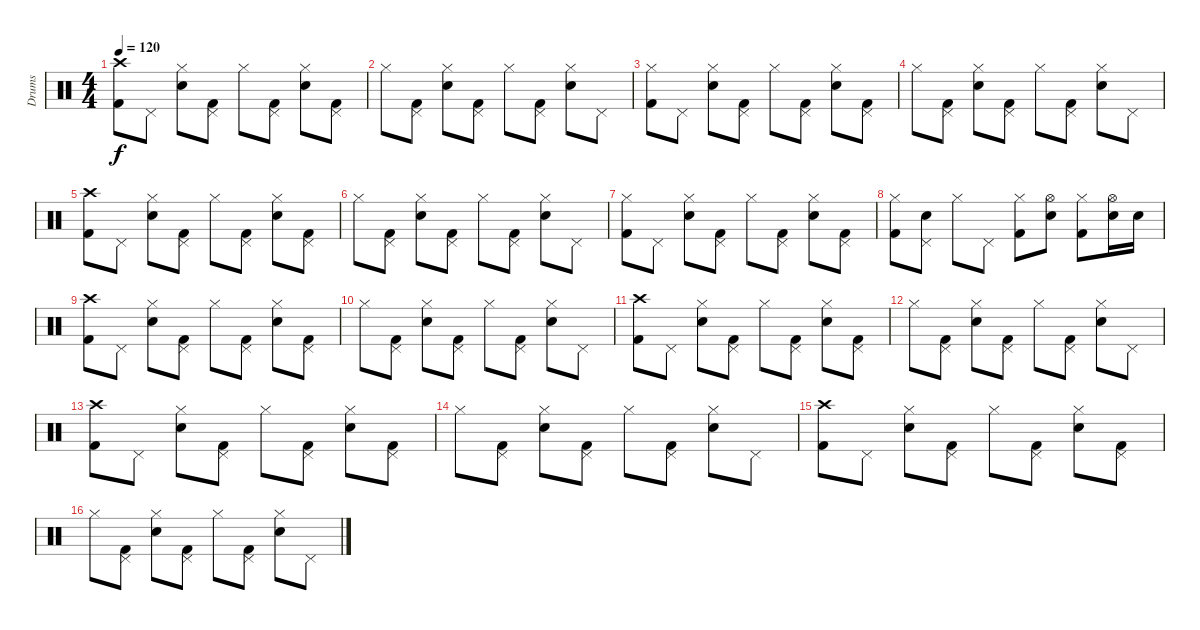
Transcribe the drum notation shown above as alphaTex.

\track ("Drums" "Drums") {instrument percussion}
\staff {score}
\articulation defaults
\ts (4 4)
\tempo 120
\clef neutral
\ks c
("Kick (hit) 2" "Crash high (hit)").8{dy f} "Pedal Hi-Hat (hit)".8 ("Electric Snare (hit)" "Hi-Hat (closed)").8 ("Kick (hit) 2" "Pedal Hi-Hat (hit)").8 "Hi-Hat (closed)".8 ("Kick (hit) 2" "Pedal Hi-Hat (hit)").8 ("Electric Snare (hit)" "Hi-Hat (closed)").8 ("Kick (hit) 2" "Pedal Hi-Hat (hit)").8 |
"Hi-Hat (closed)".8 ("Kick (hit) 2" "Pedal Hi-Hat (hit)").8 ("Electric Snare (hit)" "Hi-Hat (closed)").8 ("Kick (hit) 2" "Pedal Hi-Hat (hit)").8 "Hi-Hat (closed)".8 ("Kick (hit) 2" "Pedal Hi-Hat (hit)").8 ("Electric Snare (hit)" "Hi-Hat (closed)").8 "Pedal Hi-Hat (hit)".8 |
("Kick (hit) 2" "Hi-Hat (closed)").8 "Pedal Hi-Hat (hit)".8 ("Electric Snare (hit)" "Hi-Hat (closed)").8 ("Kick (hit) 2" "Pedal Hi-Hat (hit)").8 "Hi-Hat (closed)".8 ("Kick (hit) 2" "Pedal Hi-Hat (hit)").8 ("Electric Snare (hit)" "Hi-Hat (closed)").8 ("Kick (hit) 2" "Pedal Hi-Hat (hit)").8 |
"Hi-Hat (closed)".8 ("Kick (hit) 2" "Pedal Hi-Hat (hit)").8 ("Electric Snare (hit)" "Hi-Hat (closed)").8 ("Kick (hit) 2" "Pedal Hi-Hat (hit)").8 "Hi-Hat (closed)".8 ("Kick (hit) 2" "Pedal Hi-Hat (hit)").8 ("Electric Snare (hit)" "Hi-Hat (closed)").8 "Pedal Hi-Hat (hit)".8 |
("Kick (hit) 2" "Crash high (hit)").8 "Pedal Hi-Hat (hit)".8 ("Electric Snare (hit)" "Hi-Hat (closed)").8 ("Kick (hit) 2" "Pedal Hi-Hat (hit)").8 "Hi-Hat (closed)".8 ("Kick (hit) 2" "Pedal Hi-Hat (hit)").8 ("Electric Snare (hit)" "Hi-Hat (closed)").8 ("Kick (hit) 2" "Pedal Hi-Hat (hit)").8 |
"Hi-Hat (closed)".8 ("Kick (hit) 2" "Pedal Hi-Hat (hit)").8 ("Electric Snare (hit)" "Hi-Hat (closed)").8 ("Kick (hit) 2" "Pedal Hi-Hat (hit)").8 "Hi-Hat (closed)".8 ("Kick (hit) 2" "Pedal Hi-Hat (hit)").8 ("Electric Snare (hit)" "Hi-Hat (closed)").8 "Pedal Hi-Hat (hit)".8 |
("Kick (hit) 2" "Hi-Hat (closed)").8 "Pedal Hi-Hat (hit)".8 ("Electric Snare (hit)" "Hi-Hat (closed)").8 ("Kick (hit) 2" "Pedal Hi-Hat (hit)").8 "Hi-Hat (closed)".8 ("Kick (hit) 2" "Pedal Hi-Hat (hit)").8 ("Electric Snare (hit)" "Hi-Hat (closed)").8 ("Kick (hit) 2" "Pedal Hi-Hat (hit)").8 |
("Kick (hit) 2" "Hi-Hat (closed)").8 ("Electric Snare (hit)" "Pedal Hi-Hat (hit)").8 "Hi-Hat (closed)".8 "Pedal Hi-Hat (hit)".8 ("Kick (hit) 2" "Hi-Hat (closed)").8 ("Electric Snare (hit)" "Hi-Hat (open)").8 ("Kick (hit) 2" "Hi-Hat (closed)").8 ("Electric Snare (hit)" "Hi-Hat (open)").16 "Electric Snare (hit)".16 |
("Kick (hit) 2" "Crash high (hit)").8 "Pedal Hi-Hat (hit)".8 ("Electric Snare (hit)" "Hi-Hat (closed)").8 ("Kick (hit) 2" "Pedal Hi-Hat (hit)").8 "Hi-Hat (closed)".8 ("Kick (hit) 2" "Pedal Hi-Hat (hit)").8 ("Electric Snare (hit)" "Hi-Hat (closed)").8 ("Kick (hit) 2" "Pedal Hi-Hat (hit)").8 |
"Hi-Hat (closed)".8 ("Kick (hit) 2" "Pedal Hi-Hat (hit)").8 ("Electric Snare (hit)" "Hi-Hat (closed)").8 ("Kick (hit) 2" "Pedal Hi-Hat (hit)").8 "Hi-Hat (closed)".8 ("Kick (hit) 2" "Pedal Hi-Hat (hit)").8 ("Electric Snare (hit)" "Hi-Hat (closed)").8 "Pedal Hi-Hat (hit)".8 |
("Kick (hit) 2" "Crash high (hit)").8 "Pedal Hi-Hat (hit)".8 ("Electric Snare (hit)" "Hi-Hat (closed)").8 ("Kick (hit) 2" "Pedal Hi-Hat (hit)").8 "Hi-Hat (closed)".8 ("Kick (hit) 2" "Pedal Hi-Hat (hit)").8 ("Electric Snare (hit)" "Hi-Hat (closed)").8 ("Kick (hit) 2" "Pedal Hi-Hat (hit)").8 |
"Hi-Hat (closed)".8 ("Kick (hit) 2" "Pedal Hi-Hat (hit)").8 ("Electric Snare (hit)" "Hi-Hat (closed)").8 ("Kick (hit) 2" "Pedal Hi-Hat (hit)").8 "Hi-Hat (closed)".8 ("Kick (hit) 2" "Pedal Hi-Hat (hit)").8 ("Electric Snare (hit)" "Hi-Hat (closed)").8 "Pedal Hi-Hat (hit)".8 |
("Kick (hit) 2" "Crash high (hit)").8 "Pedal Hi-Hat (hit)".8 ("Electric Snare (hit)" "Hi-Hat (closed)").8 ("Kick (hit) 2" "Pedal Hi-Hat (hit)").8 "Hi-Hat (closed)".8 ("Kick (hit) 2" "Pedal Hi-Hat (hit)").8 ("Electric Snare (hit)" "Hi-Hat (closed)").8 ("Kick (hit) 2" "Pedal Hi-Hat (hit)").8 |
"Hi-Hat (closed)".8 ("Kick (hit) 2" "Pedal Hi-Hat (hit)").8 ("Electric Snare (hit)" "Hi-Hat (closed)").8 ("Kick (hit) 2" "Pedal Hi-Hat (hit)").8 "Hi-Hat (closed)".8 ("Kick (hit) 2" "Pedal Hi-Hat (hit)").8 ("Electric Snare (hit)" "Hi-Hat (closed)").8 "Pedal Hi-Hat (hit)".8 |
("Kick (hit) 2" "Crash high (hit)").8 "Pedal Hi-Hat (hit)".8 ("Electric Snare (hit)" "Hi-Hat (closed)").8 ("Kick (hit) 2" "Pedal Hi-Hat (hit)").8 "Hi-Hat (closed)".8 ("Kick (hit) 2" "Pedal Hi-Hat (hit)").8 ("Electric Snare (hit)" "Hi-Hat (closed)").8 ("Kick (hit) 2" "Pedal Hi-Hat (hit)").8 |
"Hi-Hat (closed)".8 ("Kick (hit) 2" "Pedal Hi-Hat (hit)").8 ("Electric Snare (hit)" "Hi-Hat (closed)").8 ("Kick (hit) 2" "Pedal Hi-Hat (hit)").8 "Hi-Hat (closed)".8 ("Kick (hit) 2" "Pedal Hi-Hat (hit)").8 ("Electric Snare (hit)" "Hi-Hat (closed)").8 "Pedal Hi-Hat (hit)".8
